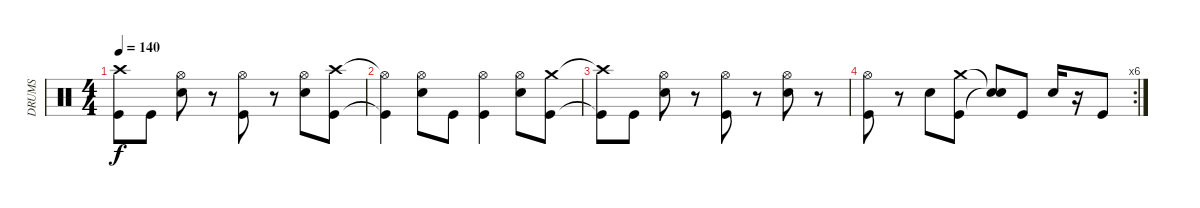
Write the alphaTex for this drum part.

\track ("DRUMS" "DRUMS") {instrument percussion}
\staff {score}
\articulation defaults
\ts (4 4)
\tempo 140
\clef neutral
\ks c
("Crash high (hit)"{t} "Kick (hit)"{t}).8{dy f} "Kick (hit)".8 ("Hi-Hat (open)" "Electric Snare (hit)").8 r.8 ("Hi-Hat (open)" "Kick (hit)").8 r.8 ("Hi-Hat (open)" "Electric Snare (hit)").8 ("Crash high (hit)" "Kick (hit)").8 |
("Hi-Hat (open)"{t} "Kick (hit)"{t}).4 ("Hi-Hat (open)" "Electric Snare (hit)").8 "Kick (hit)".8 ("Hi-Hat (open)" "Kick (hit)").4 ("Hi-Hat (open)" "Electric Snare (hit)").8 ("Crash medium (hit)" "Kick (hit)").8 |
("Crash high (hit)"{t} "Kick (hit)"{t}).8 "Kick (hit)".8 ("Hi-Hat (open)" "Electric Snare (hit)").8 r.8 ("Hi-Hat (open)" "Kick (hit)").8 r.8 ("Hi-Hat (open)" "Electric Snare (hit)").8 r.8 |
\rc 6
("Hi-Hat (open)" "Kick (hit)").8 r.8 "Electric Snare (hit)".8 ("Crash medium (hit)" "Kick (hit)").8 ("Snare (hit)"{t} "Snare (hit)"{t}).8 "Kick (hit)".8 "Electric Snare (hit)".16 r.16 "Kick (hit)".8
